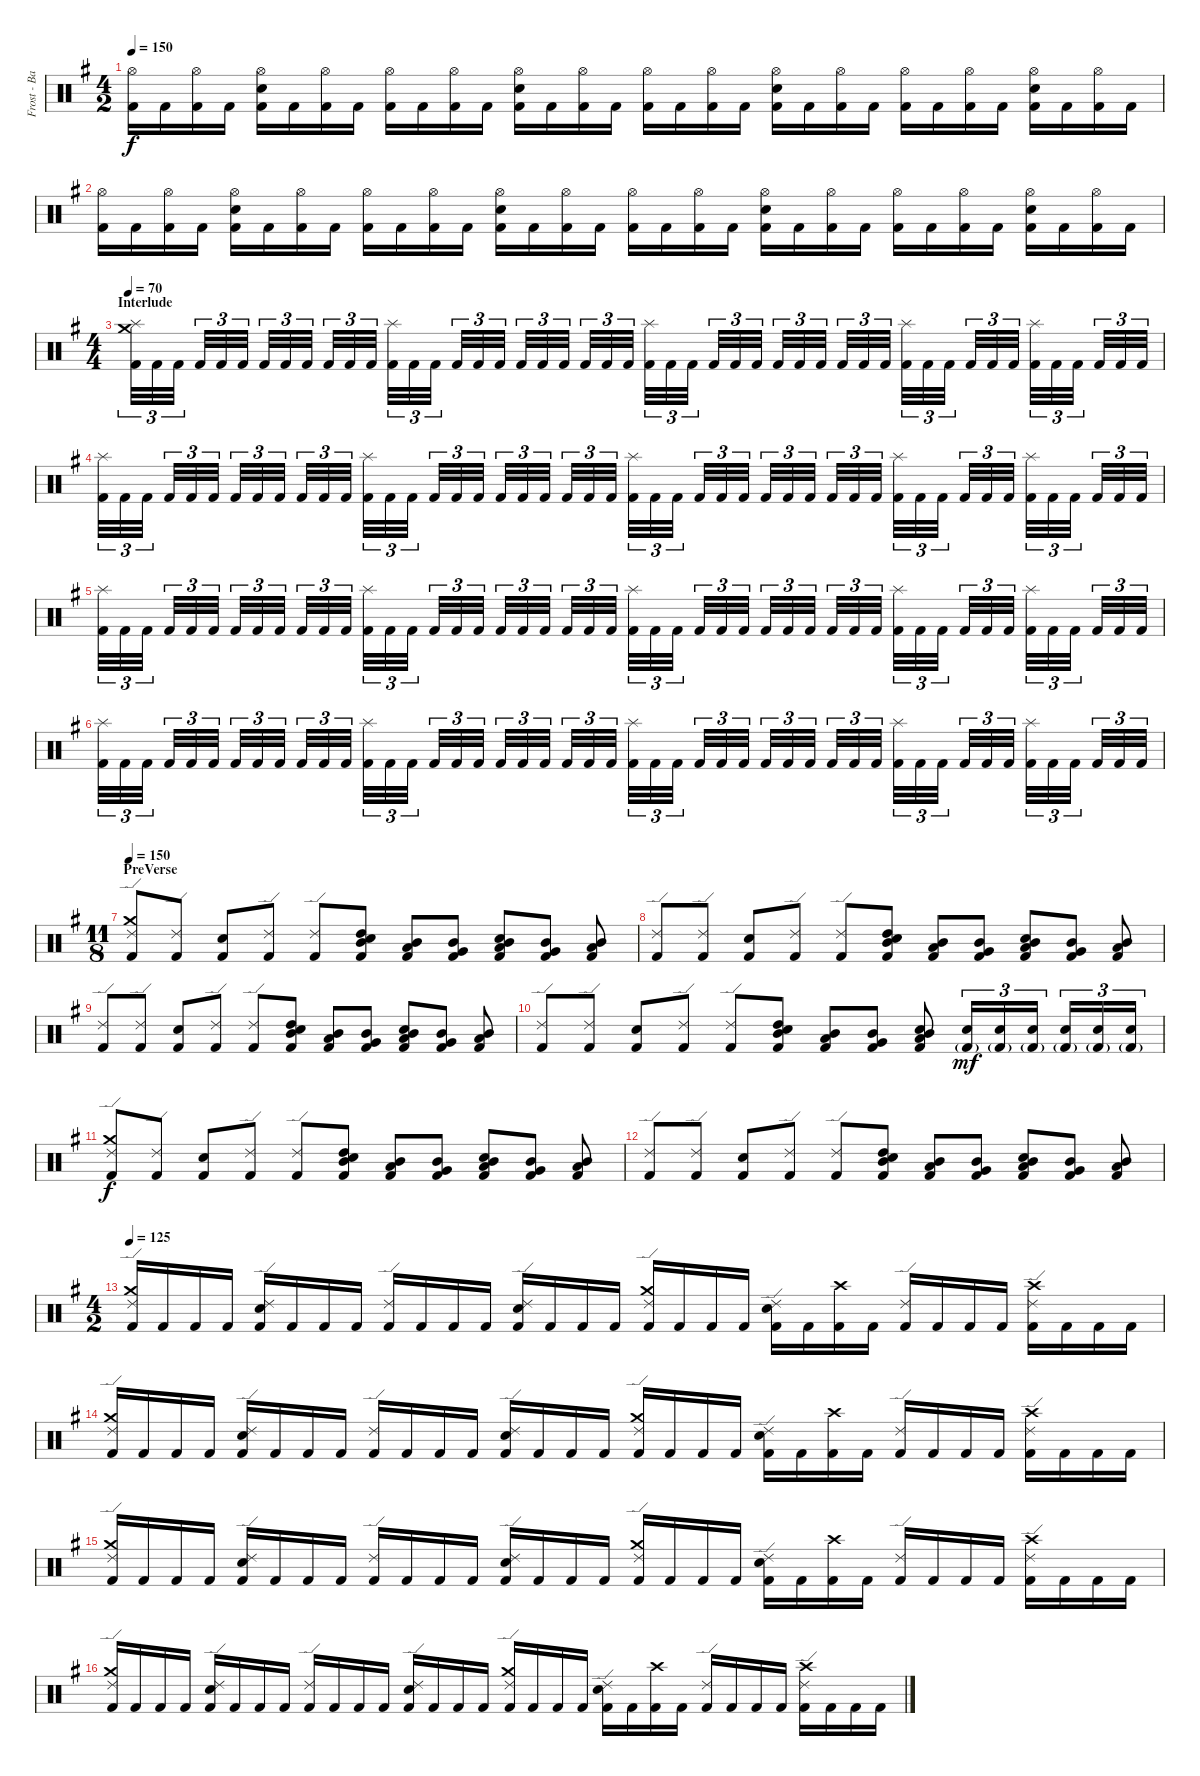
\track ("Frost - Battery" "Frost - Ba") {instrument percussion}
\staff {score}
\articulation defaults
\ts (4 2)
\tempo 150
\clef neutral
\ks eminor
("Kick (hit) 2" "Hi-Hat (open)").16{dy f} "Kick (hit) 2".16 ("Kick (hit) 2" "Hi-Hat (open)").16 "Kick (hit) 2".16 ("Kick (hit) 2" "Hi-Hat (open)" "Electric Snare (hit)").16 "Kick (hit) 2".16 ("Kick (hit) 2" "Hi-Hat (open)").16 "Kick (hit) 2".16 ("Kick (hit) 2" "Hi-Hat (open)").16 "Kick (hit) 2".16 ("Kick (hit) 2" "Hi-Hat (open)").16 "Kick (hit) 2".16 ("Kick (hit) 2" "Hi-Hat (open)" "Electric Snare (hit)").16 "Kick (hit) 2".16 ("Kick (hit) 2" "Hi-Hat (open)").16 "Kick (hit) 2".16 ("Kick (hit) 2" "Hi-Hat (open)").16 "Kick (hit) 2".16 ("Kick (hit) 2" "Hi-Hat (open)").16 "Kick (hit) 2".16 ("Kick (hit) 2" "Hi-Hat (open)" "Electric Snare (hit)").16 "Kick (hit) 2".16 ("Kick (hit) 2" "Hi-Hat (open)").16 "Kick (hit) 2".16 ("Kick (hit) 2" "Hi-Hat (open)").16 "Kick (hit) 2".16 ("Kick (hit) 2" "Hi-Hat (open)").16 "Kick (hit) 2".16 ("Kick (hit) 2" "Hi-Hat (open)" "Electric Snare (hit)").16 "Kick (hit) 2".16 ("Kick (hit) 2" "Hi-Hat (open)").16 "Kick (hit) 2".16 |
("Kick (hit) 2" "Hi-Hat (open)").16 "Kick (hit) 2".16 ("Kick (hit) 2" "Hi-Hat (open)").16 "Kick (hit) 2".16 ("Kick (hit) 2" "Hi-Hat (open)" "Electric Snare (hit)").16 "Kick (hit) 2".16 ("Kick (hit) 2" "Hi-Hat (open)").16 "Kick (hit) 2".16 ("Kick (hit) 2" "Hi-Hat (open)").16 "Kick (hit) 2".16 ("Kick (hit) 2" "Hi-Hat (open)").16 "Kick (hit) 2".16 ("Kick (hit) 2" "Hi-Hat (open)" "Electric Snare (hit)").16 "Kick (hit) 2".16 ("Kick (hit) 2" "Hi-Hat (open)").16 "Kick (hit) 2".16 ("Kick (hit) 2" "Hi-Hat (open)").16 "Kick (hit) 2".16 ("Kick (hit) 2" "Hi-Hat (open)").16 "Kick (hit) 2".16 ("Kick (hit) 2" "Hi-Hat (open)" "Electric Snare (hit)").16 "Kick (hit) 2".16 ("Kick (hit) 2" "Hi-Hat (open)").16 "Kick (hit) 2".16 ("Kick (hit) 2" "Hi-Hat (open)").16 "Kick (hit) 2".16 ("Kick (hit) 2" "Hi-Hat (open)").16 "Kick (hit) 2".16 ("Kick (hit) 2" "Hi-Hat (open)" "Electric Snare (hit)").16 "Kick (hit) 2".16 ("Kick (hit) 2" "Hi-Hat (open)").16 "Kick (hit) 2".16 |
\ts (4 4)
\section ("" "Interlude")
\tempo 70
("Kick (hit) 2" "Crash medium (hit)" "Splash (hit)").32{tu (3 2)} "Kick (hit) 2".32{tu (3 2)} "Kick (hit) 2".32{tu (3 2)} "Kick (hit) 2".32{tu (3 2)} "Kick (hit) 2".32{tu (3 2)} "Kick (hit) 2".32{tu (3 2)} "Kick (hit) 2".32{tu (3 2)} "Kick (hit) 2".32{tu (3 2)} "Kick (hit) 2".32{tu (3 2)} "Kick (hit) 2".32{tu (3 2)} "Kick (hit) 2".32{tu (3 2)} "Kick (hit) 2".32{tu (3 2)} ("Kick (hit) 2" "Splash (hit)").32{tu (3 2)} "Kick (hit) 2".32{tu (3 2)} "Kick (hit) 2".32{tu (3 2)} "Kick (hit) 2".32{tu (3 2)} "Kick (hit) 2".32{tu (3 2)} "Kick (hit) 2".32{tu (3 2)} "Kick (hit) 2".32{tu (3 2)} "Kick (hit) 2".32{tu (3 2)} "Kick (hit) 2".32{tu (3 2)} "Kick (hit) 2".32{tu (3 2)} "Kick (hit) 2".32{tu (3 2)} "Kick (hit) 2".32{tu (3 2)} ("Kick (hit) 2" "Splash (hit)").32{tu (3 2)} "Kick (hit) 2".32{tu (3 2)} "Kick (hit) 2".32{tu (3 2)} "Kick (hit) 2".32{tu (3 2)} "Kick (hit) 2".32{tu (3 2)} "Kick (hit) 2".32{tu (3 2)} "Kick (hit) 2".32{tu (3 2)} "Kick (hit) 2".32{tu (3 2)} "Kick (hit) 2".32{tu (3 2)} "Kick (hit) 2".32{tu (3 2)} "Kick (hit) 2".32{tu (3 2)} "Kick (hit) 2".32{tu (3 2)} ("Kick (hit) 2" "Splash (hit)").32{tu (3 2)} "Kick (hit) 2".32{tu (3 2)} "Kick (hit) 2".32{tu (3 2)} "Kick (hit) 2".32{tu (3 2)} "Kick (hit) 2".32{tu (3 2)} "Kick (hit) 2".32{tu (3 2)} ("Kick (hit) 2" "Splash (hit)").32{tu (3 2)} "Kick (hit) 2".32{tu (3 2)} "Kick (hit) 2".32{tu (3 2)} "Kick (hit) 2".32{tu (3 2)} "Kick (hit) 2".32{tu (3 2)} "Kick (hit) 2".32{tu (3 2)} |
("Kick (hit) 2" "Splash (hit)").32{tu (3 2)} "Kick (hit) 2".32{tu (3 2)} "Kick (hit) 2".32{tu (3 2)} "Kick (hit) 2".32{tu (3 2)} "Kick (hit) 2".32{tu (3 2)} "Kick (hit) 2".32{tu (3 2)} "Kick (hit) 2".32{tu (3 2)} "Kick (hit) 2".32{tu (3 2)} "Kick (hit) 2".32{tu (3 2)} "Kick (hit) 2".32{tu (3 2)} "Kick (hit) 2".32{tu (3 2)} "Kick (hit) 2".32{tu (3 2)} ("Kick (hit) 2" "Splash (hit)").32{tu (3 2)} "Kick (hit) 2".32{tu (3 2)} "Kick (hit) 2".32{tu (3 2)} "Kick (hit) 2".32{tu (3 2)} "Kick (hit) 2".32{tu (3 2)} "Kick (hit) 2".32{tu (3 2)} "Kick (hit) 2".32{tu (3 2)} "Kick (hit) 2".32{tu (3 2)} "Kick (hit) 2".32{tu (3 2)} "Kick (hit) 2".32{tu (3 2)} "Kick (hit) 2".32{tu (3 2)} "Kick (hit) 2".32{tu (3 2)} ("Kick (hit) 2" "Splash (hit)").32{tu (3 2)} "Kick (hit) 2".32{tu (3 2)} "Kick (hit) 2".32{tu (3 2)} "Kick (hit) 2".32{tu (3 2)} "Kick (hit) 2".32{tu (3 2)} "Kick (hit) 2".32{tu (3 2)} "Kick (hit) 2".32{tu (3 2)} "Kick (hit) 2".32{tu (3 2)} "Kick (hit) 2".32{tu (3 2)} "Kick (hit) 2".32{tu (3 2)} "Kick (hit) 2".32{tu (3 2)} "Kick (hit) 2".32{tu (3 2)} ("Kick (hit) 2" "Splash (hit)").32{tu (3 2)} "Kick (hit) 2".32{tu (3 2)} "Kick (hit) 2".32{tu (3 2)} "Kick (hit) 2".32{tu (3 2)} "Kick (hit) 2".32{tu (3 2)} "Kick (hit) 2".32{tu (3 2)} ("Kick (hit) 2" "Splash (hit)").32{tu (3 2)} "Kick (hit) 2".32{tu (3 2)} "Kick (hit) 2".32{tu (3 2)} "Kick (hit) 2".32{tu (3 2)} "Kick (hit) 2".32{tu (3 2)} "Kick (hit) 2".32{tu (3 2)} |
("Kick (hit) 2" "Splash (hit)").32{tu (3 2)} "Kick (hit) 2".32{tu (3 2)} "Kick (hit) 2".32{tu (3 2)} "Kick (hit) 2".32{tu (3 2)} "Kick (hit) 2".32{tu (3 2)} "Kick (hit) 2".32{tu (3 2)} "Kick (hit) 2".32{tu (3 2)} "Kick (hit) 2".32{tu (3 2)} "Kick (hit) 2".32{tu (3 2)} "Kick (hit) 2".32{tu (3 2)} "Kick (hit) 2".32{tu (3 2)} "Kick (hit) 2".32{tu (3 2)} ("Kick (hit) 2" "Splash (hit)").32{tu (3 2)} "Kick (hit) 2".32{tu (3 2)} "Kick (hit) 2".32{tu (3 2)} "Kick (hit) 2".32{tu (3 2)} "Kick (hit) 2".32{tu (3 2)} "Kick (hit) 2".32{tu (3 2)} "Kick (hit) 2".32{tu (3 2)} "Kick (hit) 2".32{tu (3 2)} "Kick (hit) 2".32{tu (3 2)} "Kick (hit) 2".32{tu (3 2)} "Kick (hit) 2".32{tu (3 2)} "Kick (hit) 2".32{tu (3 2)} ("Kick (hit) 2" "Splash (hit)").32{tu (3 2)} "Kick (hit) 2".32{tu (3 2)} "Kick (hit) 2".32{tu (3 2)} "Kick (hit) 2".32{tu (3 2)} "Kick (hit) 2".32{tu (3 2)} "Kick (hit) 2".32{tu (3 2)} "Kick (hit) 2".32{tu (3 2)} "Kick (hit) 2".32{tu (3 2)} "Kick (hit) 2".32{tu (3 2)} "Kick (hit) 2".32{tu (3 2)} "Kick (hit) 2".32{tu (3 2)} "Kick (hit) 2".32{tu (3 2)} ("Kick (hit) 2" "Splash (hit)").32{tu (3 2)} "Kick (hit) 2".32{tu (3 2)} "Kick (hit) 2".32{tu (3 2)} "Kick (hit) 2".32{tu (3 2)} "Kick (hit) 2".32{tu (3 2)} "Kick (hit) 2".32{tu (3 2)} ("Kick (hit) 2" "Splash (hit)").32{tu (3 2)} "Kick (hit) 2".32{tu (3 2)} "Kick (hit) 2".32{tu (3 2)} "Kick (hit) 2".32{tu (3 2)} "Kick (hit) 2".32{tu (3 2)} "Kick (hit) 2".32{tu (3 2)} |
("Kick (hit) 2" "Splash (hit)").32{tu (3 2)} "Kick (hit) 2".32{tu (3 2)} "Kick (hit) 2".32{tu (3 2)} "Kick (hit) 2".32{tu (3 2)} "Kick (hit) 2".32{tu (3 2)} "Kick (hit) 2".32{tu (3 2)} "Kick (hit) 2".32{tu (3 2)} "Kick (hit) 2".32{tu (3 2)} "Kick (hit) 2".32{tu (3 2)} "Kick (hit) 2".32{tu (3 2)} "Kick (hit) 2".32{tu (3 2)} "Kick (hit) 2".32{tu (3 2)} ("Kick (hit) 2" "Splash (hit)").32{tu (3 2)} "Kick (hit) 2".32{tu (3 2)} "Kick (hit) 2".32{tu (3 2)} "Kick (hit) 2".32{tu (3 2)} "Kick (hit) 2".32{tu (3 2)} "Kick (hit) 2".32{tu (3 2)} "Kick (hit) 2".32{tu (3 2)} "Kick (hit) 2".32{tu (3 2)} "Kick (hit) 2".32{tu (3 2)} "Kick (hit) 2".32{tu (3 2)} "Kick (hit) 2".32{tu (3 2)} "Kick (hit) 2".32{tu (3 2)} ("Kick (hit) 2" "Splash (hit)").32{tu (3 2)} "Kick (hit) 2".32{tu (3 2)} "Kick (hit) 2".32{tu (3 2)} "Kick (hit) 2".32{tu (3 2)} "Kick (hit) 2".32{tu (3 2)} "Kick (hit) 2".32{tu (3 2)} "Kick (hit) 2".32{tu (3 2)} "Kick (hit) 2".32{tu (3 2)} "Kick (hit) 2".32{tu (3 2)} "Kick (hit) 2".32{tu (3 2)} "Kick (hit) 2".32{tu (3 2)} "Kick (hit) 2".32{tu (3 2)} ("Kick (hit) 2" "Splash (hit)").32{tu (3 2)} "Kick (hit) 2".32{tu (3 2)} "Kick (hit) 2".32{tu (3 2)} "Kick (hit) 2".32{tu (3 2)} "Kick (hit) 2".32{tu (3 2)} "Kick (hit) 2".32{tu (3 2)} ("Kick (hit) 2" "Splash (hit)").32{tu (3 2)} "Kick (hit) 2".32{tu (3 2)} "Kick (hit) 2".32{tu (3 2)} "Kick (hit) 2".32{tu (3 2)} "Kick (hit) 2".32{tu (3 2)} "Kick (hit) 2".32{tu (3 2)} |
\ts (11 8)
\section ("" "PreVerse")
\tempo 115
\tempo 150
("Kick (hit) 2" "Crash medium (hit)" "Ride (edge) 2").8 ("Kick (hit) 2" "Ride (edge) 2").8 ("Kick (hit) 2" "Electric Snare (hit)").8 ("Kick (hit) 2" "Ride (edge) 2").8 ("Kick (hit) 2" "Ride (edge) 2").8 ("Kick (hit) 2" "Mid Tom (hit)" "High Tom (hit)" "Electric Snare (hit)").8 ("Kick (hit) 2" "Mid Tom (hit)" "Low Tom (hit)").8 ("Kick (hit) 2" "Mid Tom (hit)" "Very Low Tom (hit)").8 ("Kick (hit) 2" "Mid Tom (hit)" "Low Tom (hit)" "Electric Snare (hit)").8 ("Kick (hit) 2" "Mid Tom (hit)" "Very Low Tom (hit)").8 ("Kick (hit) 2" "Mid Tom (hit)" "Low Floor Tom (hit)").8 |
("Kick (hit) 2" "Ride (edge) 2").8 ("Kick (hit) 2" "Ride (edge) 2").8 ("Kick (hit) 2" "Electric Snare (hit)").8 ("Kick (hit) 2" "Ride (edge) 2").8 ("Kick (hit) 2" "Ride (edge) 2").8 ("Kick (hit) 2" "Mid Tom (hit)" "High Tom (hit)" "Electric Snare (hit)").8 ("Kick (hit) 2" "Mid Tom (hit)" "Low Tom (hit)").8 ("Kick (hit) 2" "Mid Tom (hit)" "Very Low Tom (hit)").8 ("Kick (hit) 2" "Mid Tom (hit)" "Low Tom (hit)" "Electric Snare (hit)").8 ("Kick (hit) 2" "Mid Tom (hit)" "Very Low Tom (hit)").8 ("Kick (hit) 2" "Mid Tom (hit)" "Low Floor Tom (hit)").8 |
("Kick (hit) 2" "Ride (edge) 2").8 ("Kick (hit) 2" "Ride (edge) 2").8 ("Kick (hit) 2" "Electric Snare (hit)").8 ("Kick (hit) 2" "Ride (edge) 2").8 ("Kick (hit) 2" "Ride (edge) 2").8 ("Kick (hit) 2" "Mid Tom (hit)" "High Tom (hit)" "Electric Snare (hit)").8 ("Kick (hit) 2" "Mid Tom (hit)" "Low Tom (hit)").8 ("Kick (hit) 2" "Mid Tom (hit)" "Very Low Tom (hit)").8 ("Kick (hit) 2" "Mid Tom (hit)" "Low Tom (hit)" "Electric Snare (hit)").8 ("Kick (hit) 2" "Mid Tom (hit)" "Very Low Tom (hit)").8 ("Kick (hit) 2" "Mid Tom (hit)" "Low Floor Tom (hit)").8 |
("Kick (hit) 2" "Ride (edge) 2").8 ("Kick (hit) 2" "Ride (edge) 2").8 ("Kick (hit) 2" "Electric Snare (hit)").8 ("Kick (hit) 2" "Ride (edge) 2").8 ("Kick (hit) 2" "Ride (edge) 2").8 ("Kick (hit) 2" "Mid Tom (hit)" "High Tom (hit)" "Electric Snare (hit)").8 ("Kick (hit) 2" "Mid Tom (hit)" "Low Tom (hit)").8 ("Kick (hit) 2" "Mid Tom (hit)" "Very Low Tom (hit)").8 ("Kick (hit) 2" "Mid Tom (hit)" "Low Tom (hit)" "Electric Snare (hit)").8 ("Kick (hit) 2"{g} "Electric Snare (hit)").16{tu (3 2) dy mf} ("Kick (hit) 2"{g} "Electric Snare (hit)").16{tu (3 2)} ("Kick (hit) 2"{g} "Electric Snare (hit)").16{tu (3 2)} ("Kick (hit) 2"{g} "Electric Snare (hit)").16{tu (3 2)} ("Kick (hit) 2"{g} "Electric Snare (hit)").16{tu (3 2)} ("Kick (hit) 2"{g} "Electric Snare (hit)").16{tu (3 2)} |
("Kick (hit) 2" "Crash medium (hit)" "Ride (edge) 2").8{dy f} ("Kick (hit) 2" "Ride (edge) 2").8 ("Kick (hit) 2" "Electric Snare (hit)").8 ("Kick (hit) 2" "Ride (edge) 2").8 ("Kick (hit) 2" "Ride (edge) 2").8 ("Kick (hit) 2" "Mid Tom (hit)" "High Tom (hit)" "Electric Snare (hit)").8 ("Kick (hit) 2" "Mid Tom (hit)" "Low Tom (hit)").8 ("Kick (hit) 2" "Mid Tom (hit)" "Very Low Tom (hit)").8 ("Kick (hit) 2" "Mid Tom (hit)" "Low Tom (hit)" "Electric Snare (hit)").8 ("Kick (hit) 2" "Mid Tom (hit)" "Very Low Tom (hit)").8 ("Kick (hit) 2" "Mid Tom (hit)" "Low Floor Tom (hit)").8 |
("Kick (hit) 2" "Ride (edge) 2").8 ("Kick (hit) 2" "Ride (edge) 2").8 ("Kick (hit) 2" "Electric Snare (hit)").8 ("Kick (hit) 2" "Ride (edge) 2").8 ("Kick (hit) 2" "Ride (edge) 2").8 ("Kick (hit) 2" "Mid Tom (hit)" "High Tom (hit)" "Electric Snare (hit)").8 ("Kick (hit) 2" "Mid Tom (hit)" "Low Tom (hit)").8 ("Kick (hit) 2" "Mid Tom (hit)" "Very Low Tom (hit)").8 ("Kick (hit) 2" "Mid Tom (hit)" "Low Tom (hit)" "Electric Snare (hit)").8 ("Kick (hit) 2" "Mid Tom (hit)" "Very Low Tom (hit)").8 ("Kick (hit) 2" "Mid Tom (hit)" "Low Floor Tom (hit)").8 |
\ts (4 2)
\tempo 125
("Kick (hit) 2" "Crash medium (hit)" "Ride (edge) 2").16 "Kick (hit) 2".16 "Kick (hit) 2".16 "Kick (hit) 2".16 ("Kick (hit) 2" "Electric Snare (hit)" "Ride (edge) 2").16 "Kick (hit) 2".16 "Kick (hit) 2".16 "Kick (hit) 2".16 ("Kick (hit) 2" "Ride (edge) 2").16 "Kick (hit) 2".16 "Kick (hit) 2".16 "Kick (hit) 2".16 ("Kick (hit) 2" "Electric Snare (hit)" "Ride (edge) 2").16 "Kick (hit) 2".16 "Kick (hit) 2".16 "Kick (hit) 2".16 ("Kick (hit) 2" "Crash medium (hit)" "Ride (edge) 2").16 "Kick (hit) 2".16 "Kick (hit) 2".16 "Kick (hit) 2".16 ("Kick (hit) 2" "Electric Snare (hit)" "Ride (edge) 2").16 "Kick (hit) 2".16 ("Kick (hit) 2" "Crash high (hit)").16 "Kick (hit) 2".16 ("Kick (hit) 2" "Ride (edge) 2").16 "Kick (hit) 2".16 "Kick (hit) 2".16 "Kick (hit) 2".16 ("Kick (hit) 2" "Crash high (hit)" "Ride (edge) 2").16 "Kick (hit) 2".16 "Kick (hit) 2".16 "Kick (hit) 2".16 |
("Kick (hit) 2" "Crash medium (hit)" "Ride (edge) 2").16 "Kick (hit) 2".16 "Kick (hit) 2".16 "Kick (hit) 2".16 ("Kick (hit) 2" "Electric Snare (hit)" "Ride (edge) 2").16 "Kick (hit) 2".16 "Kick (hit) 2".16 "Kick (hit) 2".16 ("Kick (hit) 2" "Ride (edge) 2").16 "Kick (hit) 2".16 "Kick (hit) 2".16 "Kick (hit) 2".16 ("Kick (hit) 2" "Electric Snare (hit)" "Ride (edge) 2").16 "Kick (hit) 2".16 "Kick (hit) 2".16 "Kick (hit) 2".16 ("Kick (hit) 2" "Crash medium (hit)" "Ride (edge) 2").16 "Kick (hit) 2".16 "Kick (hit) 2".16 "Kick (hit) 2".16 ("Kick (hit) 2" "Electric Snare (hit)" "Ride (edge) 2").16 "Kick (hit) 2".16 ("Kick (hit) 2" "Crash high (hit)").16 "Kick (hit) 2".16 ("Kick (hit) 2" "Ride (edge) 2").16 "Kick (hit) 2".16 "Kick (hit) 2".16 "Kick (hit) 2".16 ("Kick (hit) 2" "Crash high (hit)" "Ride (edge) 2").16 "Kick (hit) 2".16 "Kick (hit) 2".16 "Kick (hit) 2".16 |
("Kick (hit) 2" "Crash medium (hit)" "Ride (edge) 2").16 "Kick (hit) 2".16 "Kick (hit) 2".16 "Kick (hit) 2".16 ("Kick (hit) 2" "Electric Snare (hit)" "Ride (edge) 2").16 "Kick (hit) 2".16 "Kick (hit) 2".16 "Kick (hit) 2".16 ("Kick (hit) 2" "Ride (edge) 2").16 "Kick (hit) 2".16 "Kick (hit) 2".16 "Kick (hit) 2".16 ("Kick (hit) 2" "Electric Snare (hit)" "Ride (edge) 2").16 "Kick (hit) 2".16 "Kick (hit) 2".16 "Kick (hit) 2".16 ("Kick (hit) 2" "Crash medium (hit)" "Ride (edge) 2").16 "Kick (hit) 2".16 "Kick (hit) 2".16 "Kick (hit) 2".16 ("Kick (hit) 2" "Electric Snare (hit)" "Ride (edge) 2").16 "Kick (hit) 2".16 ("Kick (hit) 2" "Crash high (hit)").16 "Kick (hit) 2".16 ("Kick (hit) 2" "Ride (edge) 2").16 "Kick (hit) 2".16 "Kick (hit) 2".16 "Kick (hit) 2".16 ("Kick (hit) 2" "Crash high (hit)" "Ride (edge) 2").16 "Kick (hit) 2".16 "Kick (hit) 2".16 "Kick (hit) 2".16 |
("Kick (hit) 2" "Crash medium (hit)" "Ride (edge) 2").16 "Kick (hit) 2".16 "Kick (hit) 2".16 "Kick (hit) 2".16 ("Kick (hit) 2" "Electric Snare (hit)" "Ride (edge) 2").16 "Kick (hit) 2".16 "Kick (hit) 2".16 "Kick (hit) 2".16 ("Kick (hit) 2" "Ride (edge) 2").16 "Kick (hit) 2".16 "Kick (hit) 2".16 "Kick (hit) 2".16 ("Kick (hit) 2" "Electric Snare (hit)" "Ride (edge) 2").16 "Kick (hit) 2".16 "Kick (hit) 2".16 "Kick (hit) 2".16 ("Kick (hit) 2" "Crash medium (hit)" "Ride (edge) 2").16 "Kick (hit) 2".16 "Kick (hit) 2".16 "Kick (hit) 2".16 ("Kick (hit) 2" "Electric Snare (hit)" "Ride (edge) 2").16 "Kick (hit) 2".16 ("Kick (hit) 2" "Crash high (hit)").16 "Kick (hit) 2".16 ("Kick (hit) 2" "Ride (edge) 2").16 "Kick (hit) 2".16 "Kick (hit) 2".16 "Kick (hit) 2".16 ("Kick (hit) 2" "Crash high (hit)" "Ride (edge) 2").16 "Kick (hit) 2".16 "Kick (hit) 2".16 "Kick (hit) 2".16
